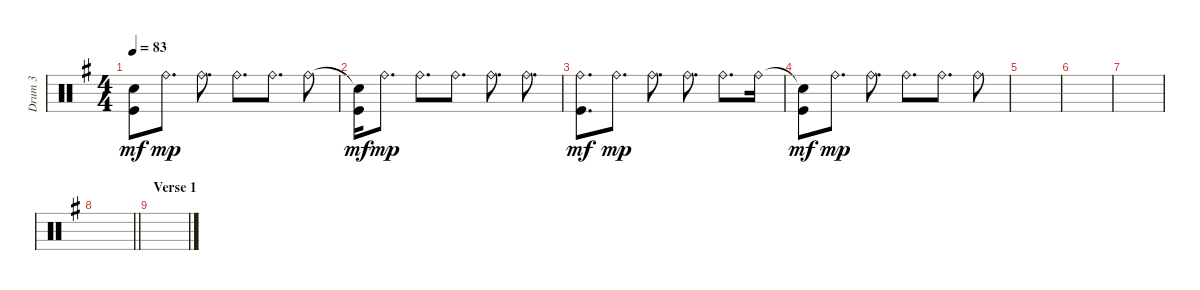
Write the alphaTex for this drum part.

\track ("Drum 3" "Drum 3") {instrument percussion}
\staff {score}
\articulation defaults
\ts (4 4)
\tempo 83
\clef neutral
\ks eminor
("Snare (hit)"{t} "Kick (hit)").8{dy mf} "Ride (bell)".8{d dy mp} "Ride (bell)".8{d} "Ride (bell)".8{d} "Ride (bell)".8{d} "Ride (bell)".8 |
("Snare (hit)"{t} "Kick (hit)").16{dy mf} "Ride (bell)".8{d dy mp} "Ride (bell)".8{d} "Ride (bell)".8{d} "Ride (bell)".8{d} "Ride (bell)".8{d} |
("Ride (bell)" "Kick (hit)").8{d dy mf} "Ride (bell)".8{d dy mp} "Ride (bell)".8{d} "Ride (bell)".8{d} "Ride (bell)".8{d} "Ride (bell)".16 |
("Snare (hit)"{t} "Kick (hit)").8{dy mf} "Ride (bell)".8{d dy mp} "Ride (bell)".8{d} "Ride (bell)".8{d} "Ride (bell)".8{d} "Ride (bell)".8 |
|
|
|
\barLineRight lightlight
|
\section ("" "Verse 1")
